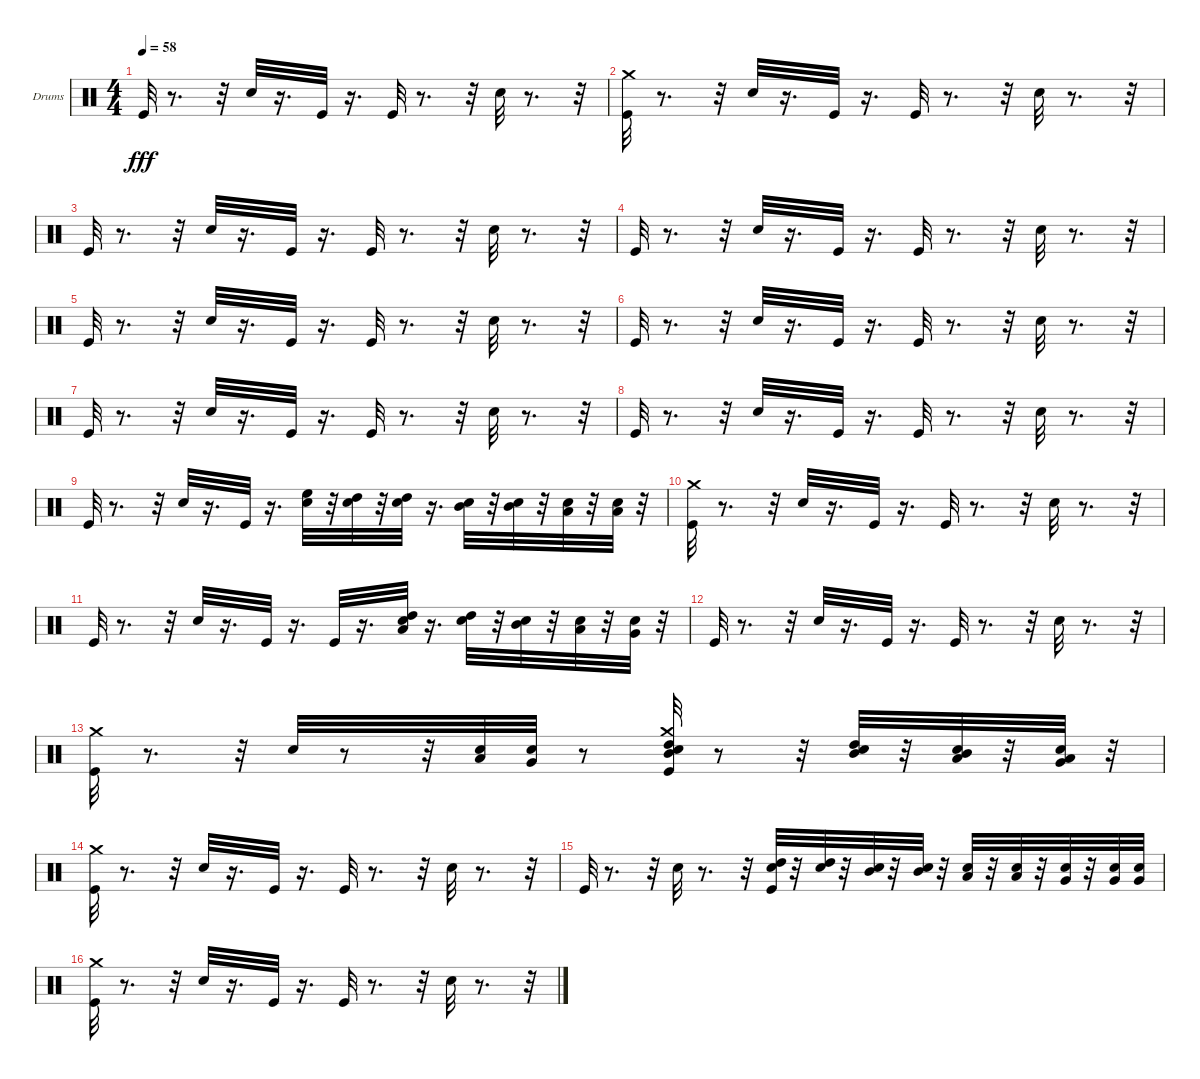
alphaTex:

\bracketExtendMode groupsimilarinstruments
\firstSystemTrackNameOrientation horizontal
\otherSystemsTrackNameOrientation horizontal
\track ("Drumkit" "Drums") {instrument percussion}
\staff {score}
\articulation defaults
\ts (4 4)
\tempo 58
\clef neutral
\ks c "Kick (hit)".32{dy fff}
r.8{d} r.32 "Snare (hit) 2".32 r.16{d} "Kick (hit)".32 r.16{d} "Kick (hit)".32 r.8{d} r.32 "Snare (hit) 2".32 r.8{d} r.32 |
("Kick (hit)" "Crash medium (hit)").32 r.8{d} r.32 "Snare (hit) 2".32 r.16{d} "Kick (hit)".32 r.16{d} "Kick (hit)".32 r.8{d} r.32 "Snare (hit) 2".32 r.8{d} r.32 |
"Kick (hit)".32 r.8{d} r.32 "Snare (hit) 2".32 r.16{d} "Kick (hit)".32 r.16{d} "Kick (hit)".32 r.8{d} r.32 "Snare (hit) 2".32 r.8{d} r.32 |
"Kick (hit)".32 r.8{d} r.32 "Snare (hit) 2".32 r.16{d} "Kick (hit)".32 r.16{d} "Kick (hit)".32 r.8{d} r.32 "Snare (hit) 2".32 r.8{d} r.32 |
"Kick (hit)".32 r.8{d} r.32 "Snare (hit) 2".32 r.16{d} "Kick (hit)".32 r.16{d} "Kick (hit)".32 r.8{d} r.32 "Snare (hit) 2".32 r.8{d} r.32 |
"Kick (hit)".32 r.8{d} r.32 "Snare (hit) 2".32 r.16{d} "Kick (hit)".32 r.16{d} "Kick (hit)".32 r.8{d} r.32 "Snare (hit) 2".32 r.8{d} r.32 |
"Kick (hit)".32 r.8{d} r.32 "Snare (hit) 2".32 r.16{d} "Kick (hit)".32 r.16{d} "Kick (hit)".32 r.8{d} r.32 "Snare (hit) 2".32 r.8{d} r.32 |
"Kick (hit)".32 r.8{d} r.32 "Snare (hit) 2".32 r.16{d} "Kick (hit)".32 r.16{d} "Kick (hit)".32 r.8{d} r.32 "Snare (hit) 2".32 r.8{d} r.32 |
"Kick (hit)".32 r.8{d} r.32 "Snare (hit) 2".32 r.16{d} "Kick (hit)".32 r.16{d} ("Snare (hit) 2" "High Floor Tom (hit)").32 r.32 ("Snare (hit) 2" "High Tom (hit)").32 r.32 ("Snare (hit) 2" "High Tom (hit)").32 r.16{d} ("Snare (hit) 2" "Mid Tom (hit)").32 r.32 ("Mid Tom (hit)" "Snare (hit) 2").32 r.32 ("Snare (hit) 2" "Low Tom (hit)").32 r.32 ("Snare (hit) 2" "Low Tom (hit)").32 r.32 |
("Kick (hit)" "Crash medium (hit)").32 r.8{d} r.32 "Snare (hit) 2".32 r.16{d} "Kick (hit)".32 r.16{d} "Kick (hit)".32 r.8{d} r.32 "Snare (hit) 2".32 r.8{d} r.32 |
"Kick (hit)".32 r.8{d} r.32 "Snare (hit) 2".32 r.16{d} "Kick (hit)".32 r.16{d} "Kick (hit)".32 r.16{d} ("Snare (hit) 2" "High Tom (hit)" "Low Tom (hit)").32 r.16{d} ("Snare (hit) 2" "High Tom (hit)").32 r.32 ("Mid Tom (hit)" "Snare (hit) 2").32 r.32 ("Snare (hit) 2" "Low Tom (hit)").32 r.32 ("Snare (hit) 2" "Very Low Tom (hit)").32 r.32 |
"Kick (hit)".32 r.8{d} r.32 "Snare (hit) 2".32 r.16{d} "Kick (hit)".32 r.16{d} "Kick (hit)".32 r.8{d} r.32 "Snare (hit) 2".32 r.8{d} r.32 |
("Kick (hit)" "Crash medium (hit)").32 r.8{d} r.32 "Snare (hit) 2".32 r.8 r.32 ("Snare (hit) 2" "Low Tom (hit)").32 ("Snare (hit) 2" "Very Low Tom (hit)").32 r.8 ("Snare (hit) 2" "Kick (hit)" "Crash medium (hit)" "High Tom (hit)" "Mid Tom (hit)").32 r.8 r.32 ("Snare (hit) 2" "High Tom (hit)" "Mid Tom (hit)").32 r.32 ("Snare (hit) 2" "Mid Tom (hit)" "Low Tom (hit)").32 r.32 ("Snare (hit) 2" "Very Low Tom (hit)" "Low Tom (hit)").32 r.32 |
("Kick (hit)" "Crash medium (hit)").32 r.8{d} r.32 "Snare (hit) 2".32 r.16{d} "Kick (hit)".32 r.16{d} "Kick (hit)".32 r.8{d} r.32 "Snare (hit) 2".32 r.8{d} r.32 |
"Kick (hit)".32 r.8{d} r.32 "Snare (hit) 2".32 r.8{d} r.32 ("Kick (hit)" "Snare (hit) 2" "High Tom (hit)").32 r.32 ("Snare (hit) 2" "High Tom (hit)").32 r.32 ("Snare (hit) 2" "Mid Tom (hit)").32 r.32 ("Snare (hit) 2" "Mid Tom (hit)").32 r.32 ("Snare (hit) 2" "Low Tom (hit)").32 r.32 ("Snare (hit) 2" "Low Tom (hit)").32 r.32 ("Very Low Tom (hit)" "Snare (hit) 2").32 r.32 ("Snare (hit) 2" "Very Low Tom (hit)").32 ("Snare (hit) 2" "Very Low Tom (hit)").32 |
("Kick (hit)" "Crash medium (hit)").32 r.8{d} r.32 "Snare (hit) 2".32 r.16{d} "Kick (hit)".32 r.16{d} "Kick (hit)".32 r.8{d} r.32 "Snare (hit) 2".32 r.8{d} r.32
